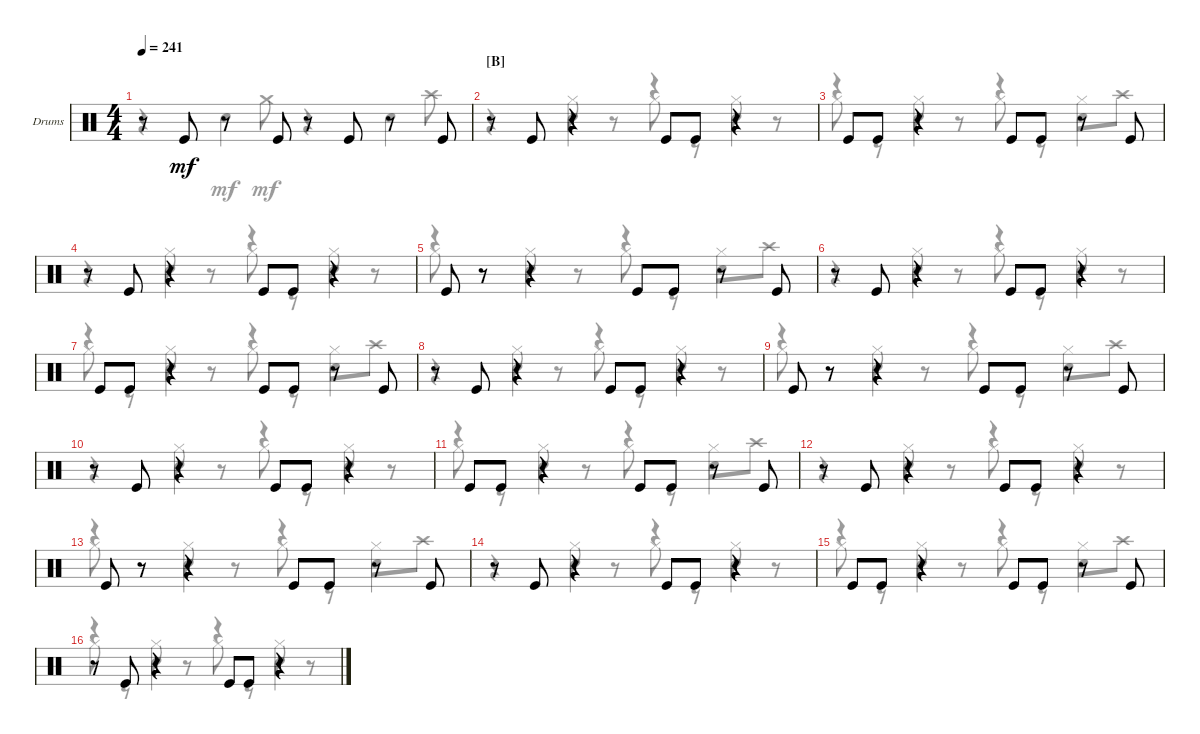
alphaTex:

\defaultSystemsLayout 4
\bracketExtendMode groupsimilarinstruments
\firstSystemTrackNameOrientation horizontal
\otherSystemsTrackNameOrientation horizontal
\track ("Drumkit" "Drums") {instrument percussion}
\staff {score}
\articulation defaults
\voice
\ts (4 4)
\tempo 241
\clef neutral
\ks c
r.8{dy mf} "Kick (hit)".8 r.8 "Kick (hit)".8 r.8 "Kick (hit)".8 r.8 "Kick (hit)".8 |
\section ("B" "")
r.8 "Kick (hit)".8 r.4 "Kick (hit)".8 "Kick (hit)".8 r.4 |
"Kick (hit)".8 "Kick (hit)".8 r.4 "Kick (hit)".8 "Kick (hit)".8 r.8 "Kick (hit)".8 |
r.8 "Kick (hit)".8 r.4 "Kick (hit)".8 "Kick (hit)".8 r.4 |
"Kick (hit)".8 r.8 r.4 "Kick (hit)".8 "Kick (hit)".8 r.8 "Kick (hit)".8 |
r.8 "Kick (hit)".8 r.4 "Kick (hit)".8 "Kick (hit)".8 r.4 |
"Kick (hit)".8 "Kick (hit)".8 r.4 "Kick (hit)".8 "Kick (hit)".8 r.8 "Kick (hit)".8 |
r.8 "Kick (hit)".8 r.4 "Kick (hit)".8 "Kick (hit)".8 r.4 |
"Kick (hit)".8 r.8 r.4 "Kick (hit)".8 "Kick (hit)".8 r.8 "Kick (hit)".8 |
r.8 "Kick (hit)".8 r.4 "Kick (hit)".8 "Kick (hit)".8 r.4 |
"Kick (hit)".8 "Kick (hit)".8 r.4 "Kick (hit)".8 "Kick (hit)".8 r.8 "Kick (hit)".8 |
r.8 "Kick (hit)".8 r.4 "Kick (hit)".8 "Kick (hit)".8 r.4 |
"Kick (hit)".8 r.8 r.4 "Kick (hit)".8 "Kick (hit)".8 r.8 "Kick (hit)".8 |
r.8 "Kick (hit)".8 r.4 "Kick (hit)".8 "Kick (hit)".8 r.4 |
"Kick (hit)".8 "Kick (hit)".8 r.4 "Kick (hit)".8 "Kick (hit)".8 r.8 "Kick (hit)".8 |
r.8 "Kick (hit)".8 r.4 "Kick (hit)".8 "Kick (hit)".8 r.4
\voice
\clef neutral
\ottava regular
\simile none
\ks c
r.4{dy mf} "Snare (hit) 2".4 r.4 "Snare (hit) 2".4 |
r.4 "Snare (hit) 2".4 r.4 "Snare (hit) 2".4 |
r.4 "Snare (hit) 2".4 r.4 "Snare (hit) 2".4 |
r.4 "Snare (hit) 2".4 r.4 "Snare (hit) 2".4 |
r.4 "Snare (hit) 2".4 r.4 "Snare (hit) 2".4 |
r.4 "Snare (hit) 2".4 r.4 "Snare (hit) 2".4 |
r.4 "Snare (hit) 2".4 r.4 "Snare (hit) 2".4 |
r.4 "Snare (hit) 2".4 r.4 "Snare (hit) 2".4 |
r.4 "Snare (hit) 2".4 r.4 "Snare (hit) 2".4 |
r.4 "Snare (hit) 2".4 r.4 "Snare (hit) 2".4 |
r.4 "Snare (hit) 2".4 r.4 "Snare (hit) 2".4 |
r.4 "Snare (hit) 2".4 r.4 "Snare (hit) 2".4 |
r.4 "Snare (hit) 2".4 r.4 "Snare (hit) 2".4 |
r.4 "Snare (hit) 2".4 r.4 "Snare (hit) 2".4 |
r.4 "Snare (hit) 2".4 r.4 "Snare (hit) 2".4 |
r.4 "Snare (hit) 2".4 r.4 "Snare (hit) 2".4
\voice
\clef neutral
\ottava regular
\simile none
\ks c
r.4{dy mf} r.8 "Crash medium (hit)".8 r.4 r.8 "Crash high (hit)".8 |
r.4 "Hi-Hat (closed)".8 r.8 "Hi-Hat (closed)".8 r.8 "Hi-Hat (closed)".8 r.8 |
"Hi-Hat (closed)".8 r.8 "Hi-Hat (closed)".8 r.8 "Hi-Hat (closed)".8 r.8 "Hi-Hat (closed)".8 "Crash high (hit)".8 |
r.4 "Hi-Hat (closed)".8 r.8 "Hi-Hat (closed)".8 r.8 "Hi-Hat (closed)".8 r.8 |
"Hi-Hat (closed)".8 r.8 "Hi-Hat (closed)".8 r.8 "Hi-Hat (closed)".8 r.8 "Hi-Hat (closed)".8 "Crash high (hit)".8 |
r.4 "Hi-Hat (closed)".8 r.8 "Hi-Hat (closed)".8 r.8 "Hi-Hat (closed)".8 r.8 |
"Hi-Hat (closed)".8 r.8 "Hi-Hat (closed)".8 r.8 "Hi-Hat (closed)".8 r.8 "Hi-Hat (closed)".8 "Crash high (hit)".8 |
r.4 "Hi-Hat (closed)".8 r.8 "Hi-Hat (closed)".8 r.8 "Hi-Hat (closed)".8 r.8 |
"Hi-Hat (closed)".8 r.8 "Hi-Hat (closed)".8 r.8 "Hi-Hat (closed)".8 r.8 "Hi-Hat (closed)".8 "Crash high (hit)".8 |
r.4 "Hi-Hat (closed)".8 r.8 "Hi-Hat (closed)".8 r.8 "Hi-Hat (closed)".8 r.8 |
"Hi-Hat (closed)".8 r.8 "Hi-Hat (closed)".8 r.8 "Hi-Hat (closed)".8 r.8 "Hi-Hat (closed)".8 "Crash high (hit)".8 |
r.4 "Hi-Hat (closed)".8 r.8 "Hi-Hat (closed)".8 r.8 "Hi-Hat (closed)".8 r.8 |
"Hi-Hat (closed)".8 r.8 "Hi-Hat (closed)".8 r.8 "Hi-Hat (closed)".8 r.8 "Hi-Hat (closed)".8 "Crash high (hit)".8 |
r.4 "Hi-Hat (closed)".8 r.8 "Hi-Hat (closed)".8 r.8 "Hi-Hat (closed)".8 r.8 |
"Hi-Hat (closed)".8 r.8 "Hi-Hat (closed)".8 r.8 "Hi-Hat (closed)".8 r.8 "Hi-Hat (closed)".8 "Crash high (hit)".8 |
"Hi-Hat (closed)".8 r.8 "Hi-Hat (closed)".8 r.8 "Hi-Hat (closed)".8 r.8 "Hi-Hat (closed)".8 r.8
